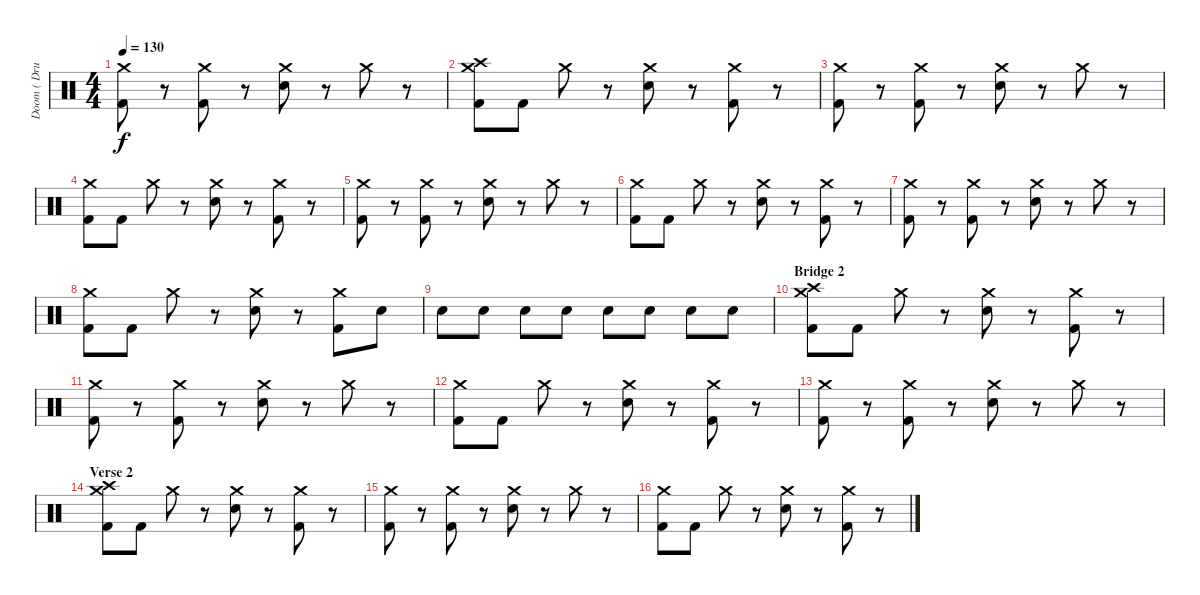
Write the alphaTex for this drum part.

\track ("Doom ( Drums )" "Doom ( Dru") {instrument percussion}
\staff {score}
\articulation defaults
\ts (4 4)
\tempo 130
\clef neutral
\ks c
("Kick (hit) 2" "Crash medium (hit)").8{dy f} r.8 ("Kick (hit) 2" "Crash medium (hit)").8 r.8 ("Electric Snare (hit)" "Crash medium (hit)").8 r.8 "Crash medium (hit)".8 r.8 |
("Crash high (hit)" "Kick (hit) 2" "Crash medium (hit)").8 "Kick (hit) 2".8 "Crash medium (hit)".8 r.8 ("Electric Snare (hit)" "Crash medium (hit)").8 r.8 ("Kick (hit) 2" "Crash medium (hit)").8 r.8 |
("Kick (hit) 2" "Crash medium (hit)").8 r.8 ("Kick (hit) 2" "Crash medium (hit)").8 r.8 ("Electric Snare (hit)" "Crash medium (hit)").8 r.8 "Crash medium (hit)".8 r.8 |
("Kick (hit) 2" "Crash medium (hit)").8 "Kick (hit) 2".8 "Crash medium (hit)".8 r.8 ("Electric Snare (hit)" "Crash medium (hit)").8 r.8 ("Kick (hit) 2" "Crash medium (hit)").8 r.8 |
("Kick (hit) 2" "Crash medium (hit)").8 r.8 ("Kick (hit) 2" "Crash medium (hit)").8 r.8 ("Electric Snare (hit)" "Crash medium (hit)").8 r.8 "Crash medium (hit)".8 r.8 |
("Kick (hit) 2" "Crash medium (hit)").8 "Kick (hit) 2".8 "Crash medium (hit)".8 r.8 ("Electric Snare (hit)" "Crash medium (hit)").8 r.8 ("Kick (hit) 2" "Crash medium (hit)").8 r.8 |
("Kick (hit) 2" "Crash medium (hit)").8 r.8 ("Kick (hit) 2" "Crash medium (hit)").8 r.8 ("Electric Snare (hit)" "Crash medium (hit)").8 r.8 "Crash medium (hit)".8 r.8 |
("Kick (hit) 2" "Crash medium (hit)").8 "Kick (hit) 2".8 "Crash medium (hit)".8 r.8 ("Electric Snare (hit)" "Crash medium (hit)").8 r.8 ("Kick (hit) 2" "Crash medium (hit)").8 "Electric Snare (hit)".8 |
"Electric Snare (hit)".8 "Electric Snare (hit)".8 "Electric Snare (hit)".8 "Electric Snare (hit)".8 "Electric Snare (hit)".8 "Electric Snare (hit)".8 "Electric Snare (hit)".8 "Electric Snare (hit)".8 |
\section ("" "Bridge 2")
("Crash high (hit)" "Kick (hit) 2" "Crash medium (hit)").8 "Kick (hit) 2".8 "Crash medium (hit)".8 r.8 ("Electric Snare (hit)" "Crash medium (hit)").8 r.8 ("Kick (hit) 2" "Crash medium (hit)").8 r.8 |
("Kick (hit) 2" "Crash medium (hit)").8 r.8 ("Kick (hit) 2" "Crash medium (hit)").8 r.8 ("Electric Snare (hit)" "Crash medium (hit)").8 r.8 "Crash medium (hit)".8 r.8 |
("Kick (hit) 2" "Crash medium (hit)").8 "Kick (hit) 2".8 "Crash medium (hit)".8 r.8 ("Electric Snare (hit)" "Crash medium (hit)").8 r.8 ("Kick (hit) 2" "Crash medium (hit)").8 r.8 |
("Kick (hit) 2" "Crash medium (hit)").8 r.8 ("Kick (hit) 2" "Crash medium (hit)").8 r.8 ("Electric Snare (hit)" "Crash medium (hit)").8 r.8 "Crash medium (hit)".8 r.8 |
\section ("" "Verse 2")
("Crash high (hit)" "Kick (hit) 2" "Crash medium (hit)").8 "Kick (hit) 2".8 "Crash medium (hit)".8 r.8 ("Electric Snare (hit)" "Crash medium (hit)").8 r.8 ("Kick (hit) 2" "Crash medium (hit)").8 r.8 |
("Kick (hit) 2" "Crash medium (hit)").8 r.8 ("Kick (hit) 2" "Crash medium (hit)").8 r.8 ("Electric Snare (hit)" "Crash medium (hit)").8 r.8 "Crash medium (hit)".8 r.8 |
("Kick (hit) 2" "Crash medium (hit)").8 "Kick (hit) 2".8 "Crash medium (hit)".8 r.8 ("Electric Snare (hit)" "Crash medium (hit)").8 r.8 ("Kick (hit) 2" "Crash medium (hit)").8 r.8
